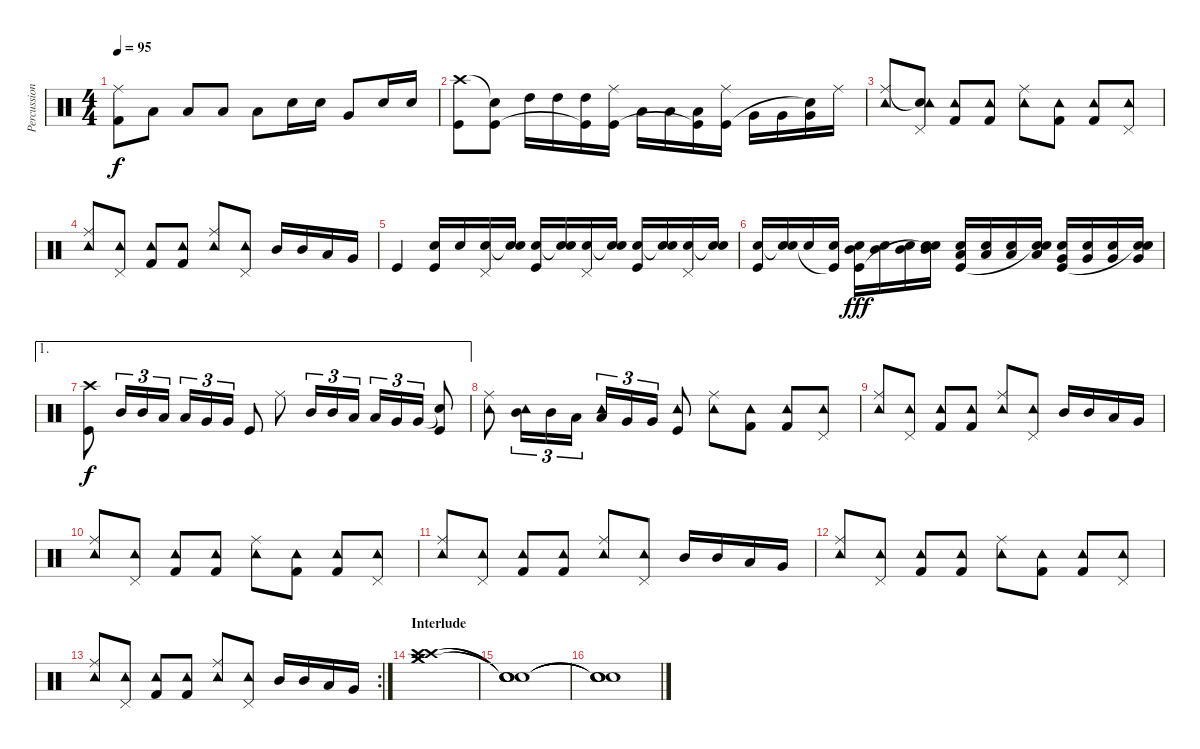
\track ("Percussions" "Percussion") {instrument percussion}
\staff {score}
\articulation defaults
\ts (4 4)
\tempo 95
\clef neutral
\ks c
("Ride (middle)" "Kick (hit) 2").8{dy f} "Low Tom (hit)".8 "Low Tom (hit)".8 "Low Tom (hit)".8 "Low Tom (hit)".8 "Snare (hit) 2".16 "Snare (hit) 2".16 "Very Low Tom (hit)".8 "Snare (hit) 2".16 "Snare (hit) 2".16 |
("Crash high (hit)" "Kick (hit)").8 ("Snare (hit)"{t} "Kick (hit)").8 "High Tom (hit)".16 "High Tom (hit)".16 ("High Tom (hit)" "Kick (hit)"{t}).16 ("Ride (middle)" "Kick (hit)").16 "Low Tom (hit)".16 "Low Tom (hit)".16 ("Low Tom (hit)" "Kick (hit)"{t}).16 ("Ride (middle)" "Kick (hit)").16 "Very Low Tom (hit)".16 "Very Low Tom (hit)".16 ("Very Low Tom (hit)" "Snare (hit)"{t}).16 "Ride (middle)".16 |
("Ride (middle)" "Tambourine (hit)").8 ("Snare (hit)"{t} "Pedal Hi-Hat (hit)" "Tambourine (hit)").8 ("Tambourine (hit)" "Kick (hit) 2").8 ("Tambourine (hit)" "Kick (hit) 2").8 ("Ride (middle)" "Tambourine (hit)").8 ("Tambourine (hit)" "Kick (hit) 2").8 ("Tambourine (hit)" "Kick (hit) 2").8 ("Pedal Hi-Hat (hit)" "Tambourine (hit)").8 |
("Ride (middle)" "Tambourine (hit)").8 ("Pedal Hi-Hat (hit)" "Tambourine (hit)").8 ("Tambourine (hit)" "Kick (hit) 2").8 ("Tambourine (hit)" "Kick (hit) 2").8 ("Ride (middle)" "Tambourine (hit)").8 ("Pedal Hi-Hat (hit)" "Tambourine (hit)").8 "Mid Tom (hit)".16 "Mid Tom (hit)".16 "Low Tom (hit)".16 "Very Low Tom (hit)".16 |
"Kick (hit)".4 ("Snare (hit) 2" "Kick (hit)").16 "Snare (hit) 2".16 ("Pedal Hi-Hat (hit)" "Snare (hit) 2").16 ("Snare (hit) 2" "Snare (hit)"{t}).16 ("Snare (hit) 2" "Kick (hit)").16 ("Snare (hit)"{t} "Snare (hit) 2").16 ("Pedal Hi-Hat (hit)" "Snare (hit) 2").16 ("Snare (hit) 2" "Snare (hit)"{t}).16 ("Snare (hit) 2" "Kick (hit)").16 ("Snare (hit)"{t} "Snare (hit) 2").16 ("Pedal Hi-Hat (hit)" "Snare (hit) 2").16 ("Snare (hit) 2" "Snare (hit)"{t}).16 |
("Snare (hit) 2" "Kick (hit)").16 ("Snare (hit)"{t} "Snare (hit) 2").16 "Snare (hit) 2".16 ("Snare (hit) 2" "Kick (hit)"{t}).16 ("Mid Tom (hit)" "Snare (hit) 2" "Kick (hit)").16{dy fff} ("Mid Tom (hit)" "Snare (hit) 2").16 ("Mid Tom (hit)" "Snare (hit) 2").16 ("Mid Tom (hit)" "Snare (hit) 2" "Snare (hit)"{t}).16 ("Low Tom (hit)" "Snare (hit) 2" "Kick (hit)").16 ("Low Tom (hit)" "Snare (hit) 2").16 ("Low Tom (hit)" "Snare (hit) 2").16 ("Low Tom (hit)" "Snare (hit) 2" "Snare (hit)"{t}).16 ("Very Low Tom (hit)" "Snare (hit) 2" "Kick (hit)").16 ("Very Low Tom (hit)" "Snare (hit) 2").16 ("Very Low Tom (hit)" "Snare (hit) 2").16 ("Very Low Tom (hit)" "Snare (hit) 2" "Snare (hit)"{t}).16 |
\ae 1
("Crash high (hit)" "Kick (hit)").8{dy f} "Mid Tom (hit)".16{tu (3 2)} "Mid Tom (hit)".16{tu (3 2)} "Low Tom (hit)".16{tu (3 2)} "Low Tom (hit)".16{tu (3 2)} "Very Low Tom (hit)".16{tu (3 2)} "Very Low Tom (hit)".16{tu (3 2)} "Kick (hit)".8 "Ride (middle)".8 "Mid Tom (hit)".16{tu (3 2)} "Mid Tom (hit)".16{tu (3 2)} "Low Tom (hit)".16{tu (3 2)} "Low Tom (hit)".16{tu (3 2)} "Very Low Tom (hit)".16{tu (3 2)} "Very Low Tom (hit)".16{tu (3 2)} ("Snare (hit)"{t} "Kick (hit)").8 |
("Ride (middle)" "Tambourine (hit)").8 ("Mid Tom (hit)" "Tambourine (hit)").16{tu (3 2)} "Mid Tom (hit)".16{tu (3 2)} "Low Tom (hit)".16{tu (3 2)} ("Low Tom (hit)" "Tambourine (hit)").16{tu (3 2)} "Very Low Tom (hit)".16{tu (3 2)} "Very Low Tom (hit)".16{tu (3 2)} ("Kick (hit)" "Tambourine (hit)").8 ("Ride (middle)" "Tambourine (hit)").8 ("Tambourine (hit)" "Kick (hit) 2").8 ("Tambourine (hit)" "Kick (hit) 2").8 ("Pedal Hi-Hat (hit)" "Tambourine (hit)").8 |
("Ride (middle)" "Tambourine (hit)").8 ("Pedal Hi-Hat (hit)" "Tambourine (hit)").8 ("Tambourine (hit)" "Kick (hit) 2").8 ("Tambourine (hit)" "Kick (hit) 2").8 ("Ride (middle)" "Tambourine (hit)").8 ("Pedal Hi-Hat (hit)" "Tambourine (hit)").8 "Mid Tom (hit)".16 "Mid Tom (hit)".16 "Low Tom (hit)".16 "Very Low Tom (hit)".16 |
("Ride (middle)" "Tambourine (hit)").8 ("Pedal Hi-Hat (hit)" "Tambourine (hit)").8 ("Tambourine (hit)" "Kick (hit) 2").8 ("Tambourine (hit)" "Kick (hit) 2").8 ("Ride (middle)" "Tambourine (hit)").8 ("Tambourine (hit)" "Kick (hit) 2").8 ("Tambourine (hit)" "Kick (hit) 2").8 ("Pedal Hi-Hat (hit)" "Tambourine (hit)").8 |
("Ride (middle)" "Tambourine (hit)").8 ("Pedal Hi-Hat (hit)" "Tambourine (hit)").8 ("Tambourine (hit)" "Kick (hit) 2").8 ("Tambourine (hit)" "Kick (hit) 2").8 ("Ride (middle)" "Tambourine (hit)").8 ("Pedal Hi-Hat (hit)" "Tambourine (hit)").8 "Mid Tom (hit)".16 "Mid Tom (hit)".16 "Low Tom (hit)".16 "Very Low Tom (hit)".16 |
("Ride (middle)" "Tambourine (hit)").8 ("Pedal Hi-Hat (hit)" "Tambourine (hit)").8 ("Tambourine (hit)" "Kick (hit) 2").8 ("Tambourine (hit)" "Kick (hit) 2").8 ("Ride (middle)" "Tambourine (hit)").8 ("Tambourine (hit)" "Kick (hit) 2").8 ("Tambourine (hit)" "Kick (hit) 2").8 ("Pedal Hi-Hat (hit)" "Tambourine (hit)").8 |
\rc 2
("Ride (middle)" "Tambourine (hit)").8 ("Pedal Hi-Hat (hit)" "Tambourine (hit)").8 ("Tambourine (hit)" "Kick (hit) 2").8 ("Tambourine (hit)" "Kick (hit) 2").8 ("Ride (middle)" "Tambourine (hit)").8 ("Pedal Hi-Hat (hit)" "Tambourine (hit)").8 "Mid Tom (hit)".16 "Mid Tom (hit)".16 "Low Tom (hit)".16 "Very Low Tom (hit)".16 |
\section ("" "Interlude")
("Crash medium (hit)" "Crash high (hit)" "Crash medium (hit)" "Crash high (hit)").1 |
("Snare (hit)"{t} "Snare (hit)"{t} "Snare (hit)"{t} "Snare (hit)"{t}).1 |
("Snare (hit)"{t} "Snare (hit)"{t} "Snare (hit)"{t} "Snare (hit)"{t}).1
